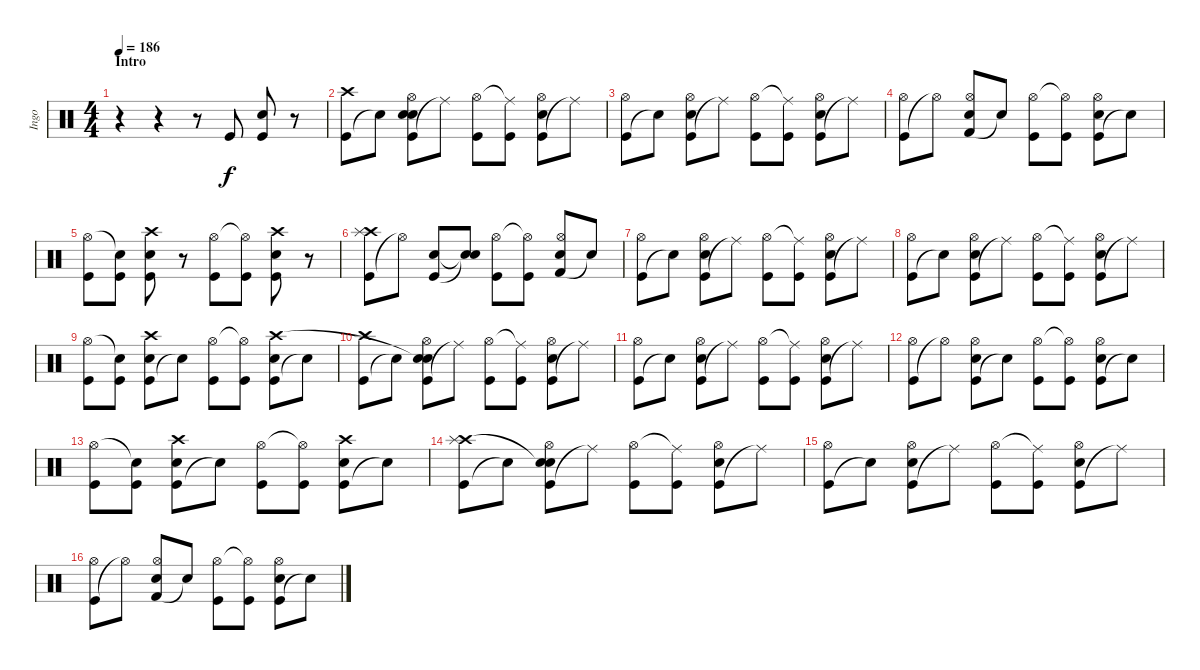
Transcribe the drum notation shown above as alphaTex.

\track ("Ingo" "Ingo") {instrument percussion}
\staff {score}
\articulation defaults
\ts (4 4)
\section ("" "Intro")
\tempo 186
\clef neutral
\ks c
r.4{dy f} r.4 r.8 "Kick (hit)".8 ("Kick (hit)" "Snare (hit) 2").8 r.8 |
("Kick (hit)" "Crash high (hit)").8 "Snare (hit)"{t}.8 ("Kick (hit)" "Snare (hit) 2" "Snare (hit)" "Hi-Hat (open)").8 "Ride (middle)"{t}.8 ("Kick (hit)" "Hi-Hat (open)").8 ("Kick (hit)" "Ride (middle)"{t}).8 ("Kick (hit)" "Snare (hit) 2" "Hi-Hat (open)").8 "Ride (middle)"{t}.8 |
("Kick (hit)" "Hi-Hat (open)").8 "Snare (hit)"{t}.8 ("Kick (hit)" "Snare (hit) 2" "Hi-Hat (open)").8 "Ride (middle)"{t}.8 ("Kick (hit)" "Hi-Hat (open)").8 ("Kick (hit)" "Ride (middle)"{t}).8 ("Kick (hit)" "Snare (hit) 2" "Hi-Hat (open)").8 "Ride (middle)"{t}.8 |
("Kick (hit)" "Hi-Hat (open)").8 "Hi-Hat (open)"{t}.8 ("Kick (hit) 2" "Snare (hit) 2" "Hi-Hat (open)").8 "Snare (hit)"{t}.8 ("Kick (hit)" "Hi-Hat (open)").8 ("Kick (hit)" "Hi-Hat (open)"{t}).8 ("Kick (hit)" "Snare (hit) 2" "Hi-Hat (open)").8 "Snare (hit)"{t}.8 |
("Kick (hit)" "Hi-Hat (open)").8 ("Kick (hit)" "Snare (hit)"{t}).8 ("Kick (hit)" "Snare (hit) 2" "Crash high (hit)").8 r.8 ("Kick (hit)" "Hi-Hat (open)").8 ("Kick (hit)" "Hi-Hat (open)"{t}).8 ("Kick (hit)" "Snare (hit) 2" "Crash high (hit)").8 r.8 |
("Kick (hit)" "Crash high (hit)" "Splash (hit)").8 "Hi-Hat (open)"{t}.8 ("Kick (hit)" "Snare (hit) 2").8 ("Snare (hit)"{t} "Snare (hit)"{t}).8 ("Kick (hit)" "Hi-Hat (open)").8 ("Kick (hit)" "Hi-Hat (open)"{t}).8 ("Kick (hit) 2" "Snare (hit) 2" "Hi-Hat (open)").8 "Snare (hit)"{t}.8 |
("Kick (hit)" "Hi-Hat (open)").8 "Snare (hit)"{t}.8 ("Kick (hit)" "Snare (hit) 2" "Hi-Hat (open)").8 "Ride (middle)"{t}.8 ("Kick (hit)" "Hi-Hat (open)").8 ("Kick (hit)" "Ride (middle)"{t}).8 ("Kick (hit)" "Snare (hit) 2" "Hi-Hat (open)").8 "Ride (middle)"{t}.8 |
("Kick (hit)" "Hi-Hat (open)").8 "Snare (hit)"{t}.8 ("Kick (hit)" "Snare (hit) 2" "Hi-Hat (open)").8 "Ride (middle)"{t}.8 ("Kick (hit)" "Hi-Hat (open)").8 ("Kick (hit)" "Ride (middle)"{t}).8 ("Kick (hit)" "Snare (hit) 2" "Hi-Hat (open)").8 "Ride (middle)"{t}.8 |
("Kick (hit)" "Hi-Hat (open)").8 ("Kick (hit)" "Snare (hit)"{t}).8 ("Kick (hit)" "Snare (hit) 2" "Crash high (hit)").8 "Snare (hit)"{t}.8 ("Kick (hit)" "Hi-Hat (open)").8 ("Kick (hit)" "Hi-Hat (open)"{t}).8 ("Kick (hit)" "Snare (hit) 2" "Crash high (hit)").8 "Snare (hit)"{t}.8 |
("Kick (hit)" "Crash high (hit)").8 "Snare (hit)"{t}.8 ("Kick (hit)" "Snare (hit) 2" "Snare (hit)"{t} "Hi-Hat (open)").8 "Ride (middle)"{t}.8 ("Kick (hit)" "Hi-Hat (open)").8 ("Kick (hit)" "Ride (middle)"{t}).8 ("Kick (hit)" "Snare (hit) 2" "Hi-Hat (open)").8 "Ride (middle)"{t}.8 |
("Kick (hit)" "Hi-Hat (open)").8 "Snare (hit)"{t}.8 ("Kick (hit)" "Snare (hit) 2" "Hi-Hat (open)").8 "Ride (middle)"{t}.8 ("Kick (hit)" "Hi-Hat (open)").8 ("Kick (hit)" "Ride (middle)"{t}).8 ("Kick (hit)" "Snare (hit) 2" "Hi-Hat (open)").8 "Ride (middle)"{t}.8 |
("Kick (hit)" "Hi-Hat (open)").8 "Hi-Hat (open)"{t}.8 ("Kick (hit)" "Snare (hit) 2" "Hi-Hat (open)").8 "Snare (hit)"{t}.8 ("Kick (hit)" "Hi-Hat (open)").8 ("Kick (hit)" "Hi-Hat (open)"{t}).8 ("Kick (hit)" "Snare (hit) 2" "Hi-Hat (open)").8 "Snare (hit)"{t}.8 |
("Kick (hit)" "Hi-Hat (open)").8 ("Kick (hit)" "Snare (hit)"{t}).8 ("Kick (hit)" "Snare (hit) 2" "Crash high (hit)").8 "Snare (hit)"{t}.8 ("Kick (hit)" "Hi-Hat (open)").8 ("Kick (hit)" "Hi-Hat (open)"{t}).8 ("Kick (hit)" "Snare (hit) 2" "Crash high (hit)").8 "Snare (hit)"{t}.8 |
("Kick (hit)" "Crash high (hit)" "Splash (hit)").8 "Snare (hit)"{t}.8 ("Kick (hit)" "Snare (hit) 2" "Snare (hit)"{t} "Hi-Hat (open)").8 "Ride (middle)"{t}.8 ("Kick (hit)" "Hi-Hat (open)").8 ("Kick (hit)" "Ride (middle)"{t}).8 ("Kick (hit)" "Snare (hit) 2" "Hi-Hat (open)").8 "Ride (middle)"{t}.8 |
("Kick (hit)" "Hi-Hat (open)").8 "Snare (hit)"{t}.8 ("Kick (hit)" "Snare (hit) 2" "Hi-Hat (open)").8 "Ride (middle)"{t}.8 ("Kick (hit)" "Hi-Hat (open)").8 ("Kick (hit)" "Ride (middle)"{t}).8 ("Kick (hit)" "Snare (hit) 2" "Hi-Hat (open)").8 "Ride (middle)"{t}.8 |
("Kick (hit)" "Hi-Hat (open)").8 "Hi-Hat (open)"{t}.8 ("Kick (hit) 2" "Snare (hit) 2" "Hi-Hat (open)").8 "Snare (hit)"{t}.8 ("Kick (hit)" "Hi-Hat (open)").8 ("Kick (hit)" "Hi-Hat (open)"{t}).8 ("Kick (hit)" "Snare (hit) 2" "Hi-Hat (open)").8 "Snare (hit)"{t}.8
